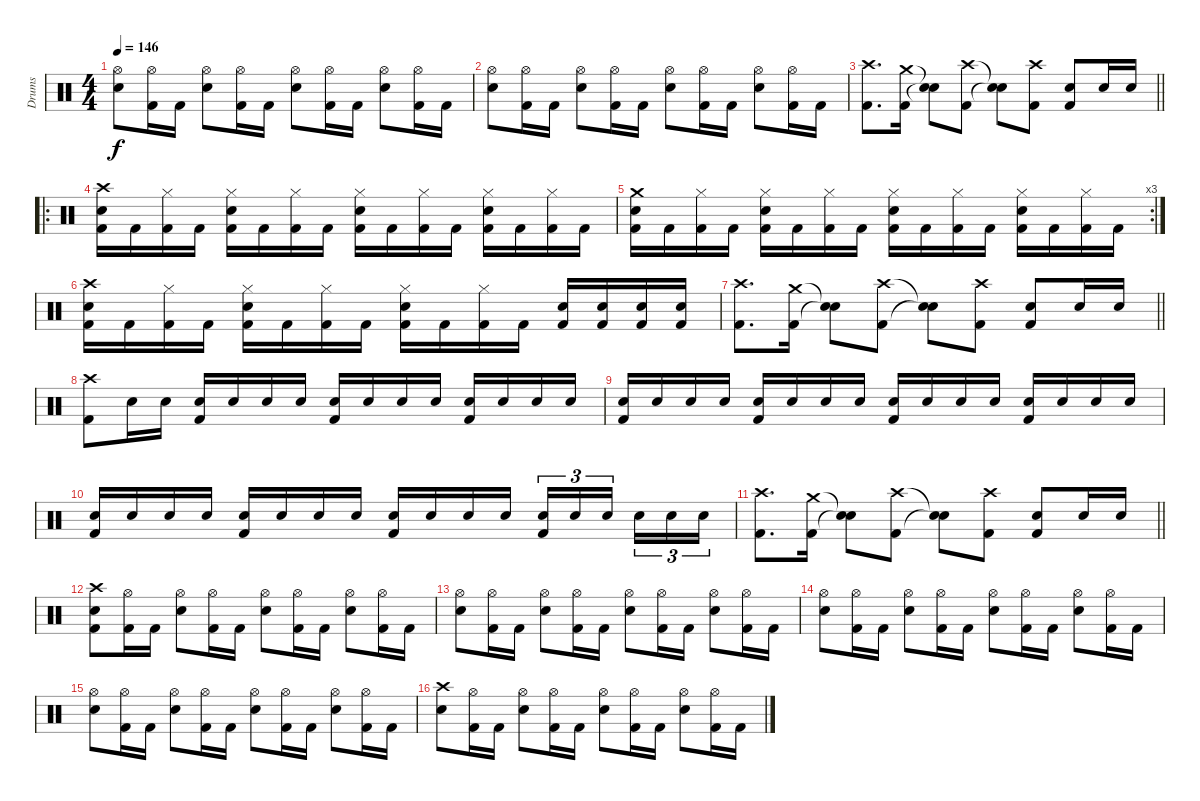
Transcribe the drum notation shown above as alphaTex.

\track ("Drums" "Drums") {instrument percussion}
\staff {score}
\articulation defaults
\ts (4 4)
\tempo 146
\clef neutral
\ks c
("Hi-Hat (open)" "Snare (hit) 2").8{dy f} ("Hi-Hat (open)" "Kick (hit) 2").16 "Kick (hit) 2".16 ("Hi-Hat (open)" "Snare (hit) 2").8 ("Hi-Hat (open)" "Kick (hit) 2").16 "Kick (hit) 2".16 ("Hi-Hat (open)" "Snare (hit) 2").8 ("Hi-Hat (open)" "Kick (hit) 2").16 "Kick (hit) 2".16 ("Hi-Hat (open)" "Snare (hit) 2").8 ("Hi-Hat (open)" "Kick (hit) 2").16 "Kick (hit) 2".16 |
("Hi-Hat (open)" "Snare (hit) 2").8 ("Hi-Hat (open)" "Kick (hit) 2").16 "Kick (hit) 2".16 ("Hi-Hat (open)" "Snare (hit) 2").8 ("Hi-Hat (open)" "Kick (hit) 2").16 "Kick (hit) 2".16 ("Hi-Hat (open)" "Snare (hit) 2").8 ("Hi-Hat (open)" "Kick (hit) 2").16 "Kick (hit) 2".16 ("Hi-Hat (open)" "Snare (hit) 2").8 ("Hi-Hat (open)" "Kick (hit) 2").16 "Kick (hit) 2".16 |
\barLineRight lightlight
("Crash high (hit)" "Kick (hit) 2").8{d} ("Crash medium (hit)" "Kick (hit) 2").16 ("Snare (hit)"{t} "Snare (hit)"{t}).8 ("Crash high (hit)" "Kick (hit) 2").8 ("Snare (hit)"{t} "Snare (hit)"{t}).8 ("Crash high (hit)" "Kick (hit) 2").8 ("Snare (hit) 2" "Kick (hit) 2").8 "Snare (hit) 2".16 "Snare (hit) 2".16 |
\ro
("Crash high (hit)" "Snare (hit) 2" "Kick (hit) 2").16 "Kick (hit) 2".16 ("Hi-Hat (closed)" "Kick (hit) 2").16 "Kick (hit) 2".16 ("Hi-Hat (closed)" "Snare (hit) 2" "Kick (hit) 2").16 "Kick (hit) 2".16 ("Hi-Hat (closed)" "Kick (hit) 2").16 "Kick (hit) 2".16 ("Hi-Hat (closed)" "Snare (hit) 2" "Kick (hit) 2").16 "Kick (hit) 2".16 ("Hi-Hat (closed)" "Kick (hit) 2").16 "Kick (hit) 2".16 ("Hi-Hat (closed)" "Snare (hit) 2" "Kick (hit) 2").16 "Kick (hit) 2".16 ("Hi-Hat (closed)" "Kick (hit) 2").16 "Kick (hit) 2".16 |
\rc 3
("Crash medium (hit)" "Snare (hit) 2" "Kick (hit) 2").16 "Kick (hit) 2".16 ("Hi-Hat (closed)" "Kick (hit) 2").16 "Kick (hit) 2".16 ("Hi-Hat (closed)" "Snare (hit) 2" "Kick (hit) 2").16 "Kick (hit) 2".16 ("Hi-Hat (closed)" "Kick (hit) 2").16 "Kick (hit) 2".16 ("Hi-Hat (closed)" "Snare (hit) 2" "Kick (hit) 2").16 "Kick (hit) 2".16 ("Hi-Hat (closed)" "Kick (hit) 2").16 "Kick (hit) 2".16 ("Hi-Hat (closed)" "Snare (hit) 2" "Kick (hit) 2").16 "Kick (hit) 2".16 ("Hi-Hat (closed)" "Kick (hit) 2").16 "Kick (hit) 2".16 |
("Crash high (hit)" "Snare (hit) 2" "Kick (hit) 2").16 "Kick (hit) 2".16 ("Hi-Hat (closed)" "Kick (hit) 2").16 "Kick (hit) 2".16 ("Hi-Hat (closed)" "Snare (hit) 2" "Kick (hit) 2").16 "Kick (hit) 2".16 ("Hi-Hat (closed)" "Kick (hit) 2").16 "Kick (hit) 2".16 ("Hi-Hat (closed)" "Snare (hit) 2" "Kick (hit) 2").16 "Kick (hit) 2".16 ("Hi-Hat (closed)" "Kick (hit) 2").16 "Kick (hit) 2".16 ("Snare (hit) 2" "Kick (hit) 2").16 ("Snare (hit) 2" "Kick (hit) 2").16 ("Snare (hit) 2" "Kick (hit) 2").16 ("Snare (hit) 2" "Kick (hit) 2").16 |
\barLineRight lightlight
("Crash high (hit)" "Kick (hit) 2").8{d} ("Crash medium (hit)" "Kick (hit) 2").16 ("Snare (hit)"{t} "Snare (hit)"{t}).8 ("Crash high (hit)" "Kick (hit) 2").8 ("Snare (hit)"{t} "Snare (hit)"{t}).8 ("Crash high (hit)" "Kick (hit) 2").8 ("Snare (hit) 2" "Kick (hit) 2").8 "Snare (hit) 2".16 "Snare (hit) 2".16 |
("Crash high (hit)" "Kick (hit) 2").8 "Snare (hit) 2".16 "Snare (hit) 2".16 ("Snare (hit) 2" "Kick (hit) 2").16 "Snare (hit) 2".16 "Snare (hit) 2".16 "Snare (hit) 2".16 ("Snare (hit) 2" "Kick (hit) 2").16 "Snare (hit) 2".16 "Snare (hit) 2".16 "Snare (hit) 2".16 ("Snare (hit) 2" "Kick (hit) 2").16 "Snare (hit) 2".16 "Snare (hit) 2".16 "Snare (hit) 2".16 |
("Snare (hit) 2" "Kick (hit) 2").16 "Snare (hit) 2".16 "Snare (hit) 2".16 "Snare (hit) 2".16 ("Snare (hit) 2" "Kick (hit) 2").16 "Snare (hit) 2".16 "Snare (hit) 2".16 "Snare (hit) 2".16 ("Snare (hit) 2" "Kick (hit) 2").16 "Snare (hit) 2".16 "Snare (hit) 2".16 "Snare (hit) 2".16 ("Snare (hit) 2" "Kick (hit) 2").16 "Snare (hit) 2".16 "Snare (hit) 2".16 "Snare (hit) 2".16 |
("Snare (hit) 2" "Kick (hit) 2").16 "Snare (hit) 2".16 "Snare (hit) 2".16 "Snare (hit) 2".16 ("Snare (hit) 2" "Kick (hit) 2").16 "Snare (hit) 2".16 "Snare (hit) 2".16 "Snare (hit) 2".16 ("Snare (hit) 2" "Kick (hit) 2").16 "Snare (hit) 2".16 "Snare (hit) 2".16 "Snare (hit) 2".16 ("Snare (hit) 2" "Kick (hit) 2").16{tu (3 2)} "Snare (hit) 2".16{tu (3 2)} "Snare (hit) 2".16{tu (3 2) beam splitsecondary} "Snare (hit) 2".16{tu (3 2)} "Snare (hit) 2".16{tu (3 2)} "Snare (hit) 2".16{tu (3 2)} |
\barLineRight lightlight
("Crash high (hit)" "Kick (hit) 2").8{d} ("Crash medium (hit)" "Kick (hit) 2").16 ("Snare (hit)"{t} "Snare (hit)"{t}).8 ("Crash high (hit)" "Kick (hit) 2").8 ("Snare (hit)"{t} "Snare (hit)"{t}).8 ("Crash high (hit)" "Kick (hit) 2").8 ("Snare (hit) 2" "Kick (hit) 2").8 "Snare (hit) 2".16 "Snare (hit) 2".16 |
("Crash high (hit)" "Snare (hit) 2" "Kick (hit) 2").8 ("Hi-Hat (open)" "Kick (hit) 2").16 "Kick (hit) 2".16 ("Hi-Hat (open)" "Snare (hit) 2").8 ("Hi-Hat (open)" "Kick (hit) 2").16 "Kick (hit) 2".16 ("Hi-Hat (open)" "Snare (hit) 2").8 ("Hi-Hat (open)" "Kick (hit) 2").16 "Kick (hit) 2".16 ("Hi-Hat (open)" "Snare (hit) 2").8 ("Hi-Hat (open)" "Kick (hit) 2").16 "Kick (hit) 2".16 |
("Hi-Hat (open)" "Snare (hit) 2").8 ("Hi-Hat (open)" "Kick (hit) 2").16 "Kick (hit) 2".16 ("Hi-Hat (open)" "Snare (hit) 2").8 ("Hi-Hat (open)" "Kick (hit) 2").16 "Kick (hit) 2".16 ("Hi-Hat (open)" "Snare (hit) 2").8 ("Hi-Hat (open)" "Kick (hit) 2").16 "Kick (hit) 2".16 ("Hi-Hat (open)" "Snare (hit) 2").8 ("Hi-Hat (open)" "Kick (hit) 2").16 "Kick (hit) 2".16 |
("Hi-Hat (open)" "Snare (hit) 2").8 ("Hi-Hat (open)" "Kick (hit) 2").16 "Kick (hit) 2".16 ("Hi-Hat (open)" "Snare (hit) 2").8 ("Hi-Hat (open)" "Kick (hit) 2").16 "Kick (hit) 2".16 ("Hi-Hat (open)" "Snare (hit) 2").8 ("Hi-Hat (open)" "Kick (hit) 2").16 "Kick (hit) 2".16 ("Hi-Hat (open)" "Snare (hit) 2").8 ("Hi-Hat (open)" "Kick (hit) 2").16 "Kick (hit) 2".16 |
("Hi-Hat (open)" "Snare (hit) 2").8 ("Hi-Hat (open)" "Kick (hit) 2").16 "Kick (hit) 2".16 ("Hi-Hat (open)" "Snare (hit) 2").8 ("Hi-Hat (open)" "Kick (hit) 2").16 "Kick (hit) 2".16 ("Hi-Hat (open)" "Snare (hit) 2").8 ("Hi-Hat (open)" "Kick (hit) 2").16 "Kick (hit) 2".16 ("Hi-Hat (open)" "Snare (hit) 2").8 ("Hi-Hat (open)" "Kick (hit) 2").16 "Kick (hit) 2".16 |
("Crash high (hit)" "Snare (hit) 2").8 ("Hi-Hat (open)" "Kick (hit) 2").16 "Kick (hit) 2".16 ("Hi-Hat (open)" "Snare (hit) 2").8 ("Hi-Hat (open)" "Kick (hit) 2").16 "Kick (hit) 2".16 ("Hi-Hat (open)" "Snare (hit) 2").8 ("Hi-Hat (open)" "Kick (hit) 2").16 "Kick (hit) 2".16 ("Hi-Hat (open)" "Snare (hit) 2").8 ("Hi-Hat (open)" "Kick (hit) 2").16 "Kick (hit) 2".16
